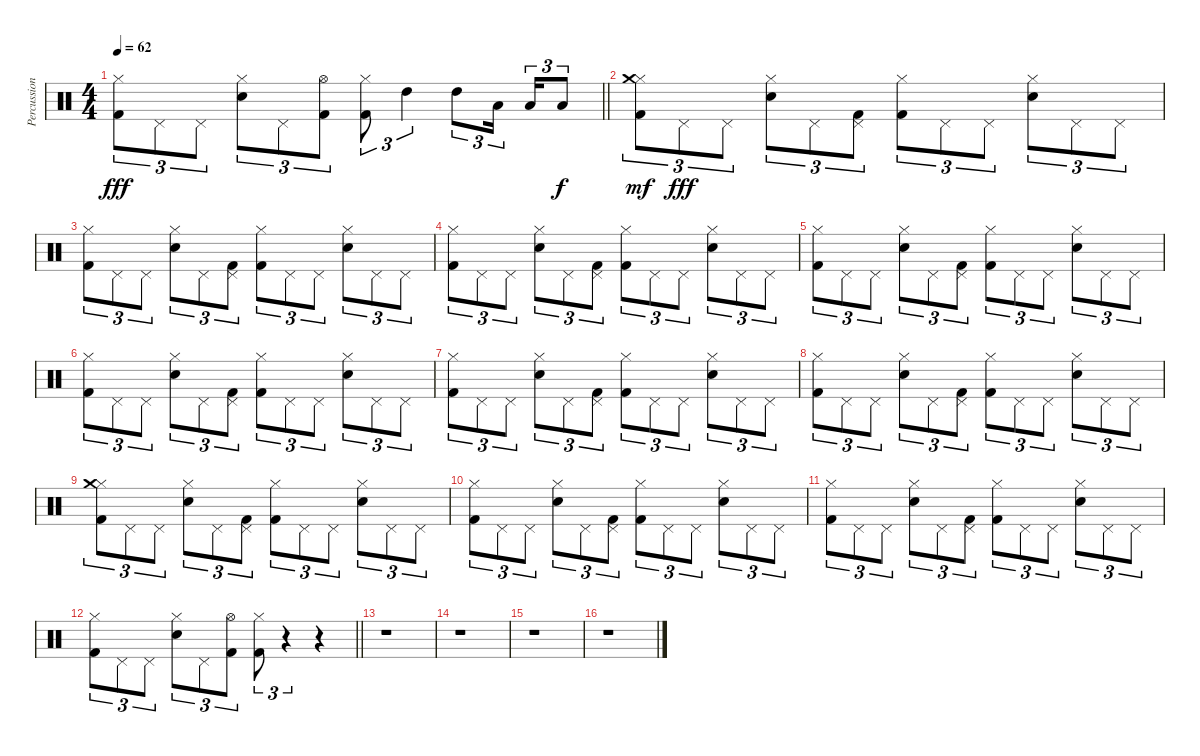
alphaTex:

\track ("Percussion" "Percussion") {instrument percussion}
\staff {score}
\articulation defaults
\ts (4 4)
\tempo 62
\clef neutral
\barLineRight lightlight
\ks c
("Kick (hit) 2" "Hi-Hat (closed)").8{tu (3 2) dy fff} "Pedal Hi-Hat (hit)".8{tu (3 2)} "Pedal Hi-Hat (hit)".8{tu (3 2)} ("Snare (hit) 2" "Hi-Hat (closed)").8{tu (3 2)} "Pedal Hi-Hat (hit)".8{tu (3 2)} ("Kick (hit) 2" "Hi-Hat (open)").8{tu (3 2)} ("Kick (hit) 2" "Hi-Hat (closed)").8{tu (3 2)} "High Tom (hit)".4{tu (3 2)} "High Tom (hit)".8{tu (3 2)} "Low Tom (hit)".16{tu (3 2) beam splitsecondary} "Low Tom (hit)".16{tu (3 2)} "Low Floor Tom (hit)".8{tu (3 2) dy f} |
("Kick (hit) 2" "Hi-Hat (closed)" "Crash medium (hit)").8{tu (3 2) dy mf} "Pedal Hi-Hat (hit)".8{tu (3 2) dy fff} "Pedal Hi-Hat (hit)".8{tu (3 2)} ("Snare (hit) 2" "Hi-Hat (closed)").8{tu (3 2)} "Pedal Hi-Hat (hit)".8{tu (3 2)} ("Kick (hit) 2" "Pedal Hi-Hat (hit)").8{tu (3 2)} ("Kick (hit) 2" "Hi-Hat (closed)").8{tu (3 2)} "Pedal Hi-Hat (hit)".8{tu (3 2)} "Pedal Hi-Hat (hit)".8{tu (3 2)} ("Snare (hit) 2" "Hi-Hat (closed)").8{tu (3 2)} "Pedal Hi-Hat (hit)".8{tu (3 2)} "Pedal Hi-Hat (hit)".8{tu (3 2)} |
("Kick (hit) 2" "Hi-Hat (closed)").8{tu (3 2)} "Pedal Hi-Hat (hit)".8{tu (3 2)} "Pedal Hi-Hat (hit)".8{tu (3 2)} ("Snare (hit) 2" "Hi-Hat (closed)").8{tu (3 2)} "Pedal Hi-Hat (hit)".8{tu (3 2)} ("Kick (hit) 2" "Pedal Hi-Hat (hit)").8{tu (3 2)} ("Kick (hit) 2" "Hi-Hat (closed)").8{tu (3 2)} "Pedal Hi-Hat (hit)".8{tu (3 2)} "Pedal Hi-Hat (hit)".8{tu (3 2)} ("Snare (hit) 2" "Hi-Hat (closed)").8{tu (3 2)} "Pedal Hi-Hat (hit)".8{tu (3 2)} "Pedal Hi-Hat (hit)".8{tu (3 2)} |
("Kick (hit) 2" "Hi-Hat (closed)").8{tu (3 2)} "Pedal Hi-Hat (hit)".8{tu (3 2)} "Pedal Hi-Hat (hit)".8{tu (3 2)} ("Snare (hit) 2" "Hi-Hat (closed)").8{tu (3 2)} "Pedal Hi-Hat (hit)".8{tu (3 2)} ("Kick (hit) 2" "Pedal Hi-Hat (hit)").8{tu (3 2)} ("Kick (hit) 2" "Hi-Hat (closed)").8{tu (3 2)} "Pedal Hi-Hat (hit)".8{tu (3 2)} "Pedal Hi-Hat (hit)".8{tu (3 2)} ("Snare (hit) 2" "Hi-Hat (closed)").8{tu (3 2)} "Pedal Hi-Hat (hit)".8{tu (3 2)} "Pedal Hi-Hat (hit)".8{tu (3 2)} |
("Kick (hit) 2" "Hi-Hat (closed)").8{tu (3 2)} "Pedal Hi-Hat (hit)".8{tu (3 2)} "Pedal Hi-Hat (hit)".8{tu (3 2)} ("Snare (hit) 2" "Hi-Hat (closed)").8{tu (3 2)} "Pedal Hi-Hat (hit)".8{tu (3 2)} ("Kick (hit) 2" "Pedal Hi-Hat (hit)").8{tu (3 2)} ("Kick (hit) 2" "Hi-Hat (closed)").8{tu (3 2)} "Pedal Hi-Hat (hit)".8{tu (3 2)} "Pedal Hi-Hat (hit)".8{tu (3 2)} ("Snare (hit) 2" "Hi-Hat (closed)").8{tu (3 2)} "Pedal Hi-Hat (hit)".8{tu (3 2)} "Pedal Hi-Hat (hit)".8{tu (3 2)} |
("Kick (hit) 2" "Hi-Hat (closed)").8{tu (3 2)} "Pedal Hi-Hat (hit)".8{tu (3 2)} "Pedal Hi-Hat (hit)".8{tu (3 2)} ("Snare (hit) 2" "Hi-Hat (closed)").8{tu (3 2)} "Pedal Hi-Hat (hit)".8{tu (3 2)} ("Kick (hit) 2" "Pedal Hi-Hat (hit)").8{tu (3 2)} ("Kick (hit) 2" "Hi-Hat (closed)").8{tu (3 2)} "Pedal Hi-Hat (hit)".8{tu (3 2)} "Pedal Hi-Hat (hit)".8{tu (3 2)} ("Snare (hit) 2" "Hi-Hat (closed)").8{tu (3 2)} "Pedal Hi-Hat (hit)".8{tu (3 2)} "Pedal Hi-Hat (hit)".8{tu (3 2)} |
("Kick (hit) 2" "Hi-Hat (closed)").8{tu (3 2)} "Pedal Hi-Hat (hit)".8{tu (3 2)} "Pedal Hi-Hat (hit)".8{tu (3 2)} ("Snare (hit) 2" "Hi-Hat (closed)").8{tu (3 2)} "Pedal Hi-Hat (hit)".8{tu (3 2)} ("Kick (hit) 2" "Pedal Hi-Hat (hit)").8{tu (3 2)} ("Kick (hit) 2" "Hi-Hat (closed)").8{tu (3 2)} "Pedal Hi-Hat (hit)".8{tu (3 2)} "Pedal Hi-Hat (hit)".8{tu (3 2)} ("Snare (hit) 2" "Hi-Hat (closed)").8{tu (3 2)} "Pedal Hi-Hat (hit)".8{tu (3 2)} "Pedal Hi-Hat (hit)".8{tu (3 2)} |
("Kick (hit) 2" "Hi-Hat (closed)").8{tu (3 2)} "Pedal Hi-Hat (hit)".8{tu (3 2)} "Pedal Hi-Hat (hit)".8{tu (3 2)} ("Snare (hit) 2" "Hi-Hat (closed)").8{tu (3 2)} "Pedal Hi-Hat (hit)".8{tu (3 2)} ("Kick (hit) 2" "Pedal Hi-Hat (hit)").8{tu (3 2)} ("Kick (hit) 2" "Hi-Hat (closed)").8{tu (3 2)} "Pedal Hi-Hat (hit)".8{tu (3 2)} "Pedal Hi-Hat (hit)".8{tu (3 2)} ("Snare (hit) 2" "Hi-Hat (closed)").8{tu (3 2)} "Pedal Hi-Hat (hit)".8{tu (3 2)} "Pedal Hi-Hat (hit)".8{tu (3 2)} |
("Kick (hit) 2" "Hi-Hat (closed)" "Crash medium (hit)").8{tu (3 2)} "Pedal Hi-Hat (hit)".8{tu (3 2)} "Pedal Hi-Hat (hit)".8{tu (3 2)} ("Snare (hit) 2" "Hi-Hat (closed)").8{tu (3 2)} "Pedal Hi-Hat (hit)".8{tu (3 2)} ("Kick (hit) 2" "Pedal Hi-Hat (hit)").8{tu (3 2)} ("Kick (hit) 2" "Hi-Hat (closed)").8{tu (3 2)} "Pedal Hi-Hat (hit)".8{tu (3 2)} "Pedal Hi-Hat (hit)".8{tu (3 2)} ("Snare (hit) 2" "Hi-Hat (closed)").8{tu (3 2)} "Pedal Hi-Hat (hit)".8{tu (3 2)} "Pedal Hi-Hat (hit)".8{tu (3 2)} |
("Kick (hit) 2" "Hi-Hat (closed)").8{tu (3 2)} "Pedal Hi-Hat (hit)".8{tu (3 2)} "Pedal Hi-Hat (hit)".8{tu (3 2)} ("Snare (hit) 2" "Hi-Hat (closed)").8{tu (3 2)} "Pedal Hi-Hat (hit)".8{tu (3 2)} ("Kick (hit) 2" "Pedal Hi-Hat (hit)").8{tu (3 2)} ("Kick (hit) 2" "Hi-Hat (closed)").8{tu (3 2)} "Pedal Hi-Hat (hit)".8{tu (3 2)} "Pedal Hi-Hat (hit)".8{tu (3 2)} ("Snare (hit) 2" "Hi-Hat (closed)").8{tu (3 2)} "Pedal Hi-Hat (hit)".8{tu (3 2)} "Pedal Hi-Hat (hit)".8{tu (3 2)} |
("Kick (hit) 2" "Hi-Hat (closed)").8{tu (3 2)} "Pedal Hi-Hat (hit)".8{tu (3 2)} "Pedal Hi-Hat (hit)".8{tu (3 2)} ("Snare (hit) 2" "Hi-Hat (closed)").8{tu (3 2)} "Pedal Hi-Hat (hit)".8{tu (3 2)} ("Kick (hit) 2" "Pedal Hi-Hat (hit)").8{tu (3 2)} ("Kick (hit) 2" "Hi-Hat (closed)").8{tu (3 2)} "Pedal Hi-Hat (hit)".8{tu (3 2)} "Pedal Hi-Hat (hit)".8{tu (3 2)} ("Snare (hit) 2" "Hi-Hat (closed)").8{tu (3 2)} "Pedal Hi-Hat (hit)".8{tu (3 2)} "Pedal Hi-Hat (hit)".8{tu (3 2)} |
\barLineRight lightlight
("Kick (hit) 2" "Hi-Hat (closed)").8{tu (3 2)} "Pedal Hi-Hat (hit)".8{tu (3 2)} "Pedal Hi-Hat (hit)".8{tu (3 2)} ("Snare (hit) 2" "Hi-Hat (closed)").8{tu (3 2)} "Pedal Hi-Hat (hit)".8{tu (3 2)} ("Kick (hit) 2" "Hi-Hat (open)").8{tu (3 2)} ("Kick (hit) 2" "Hi-Hat (closed)").8{tu (3 2)} r.4{tu (3 2)} r.4 |
r.1 |
r.1 |
r.1 |
r.1
